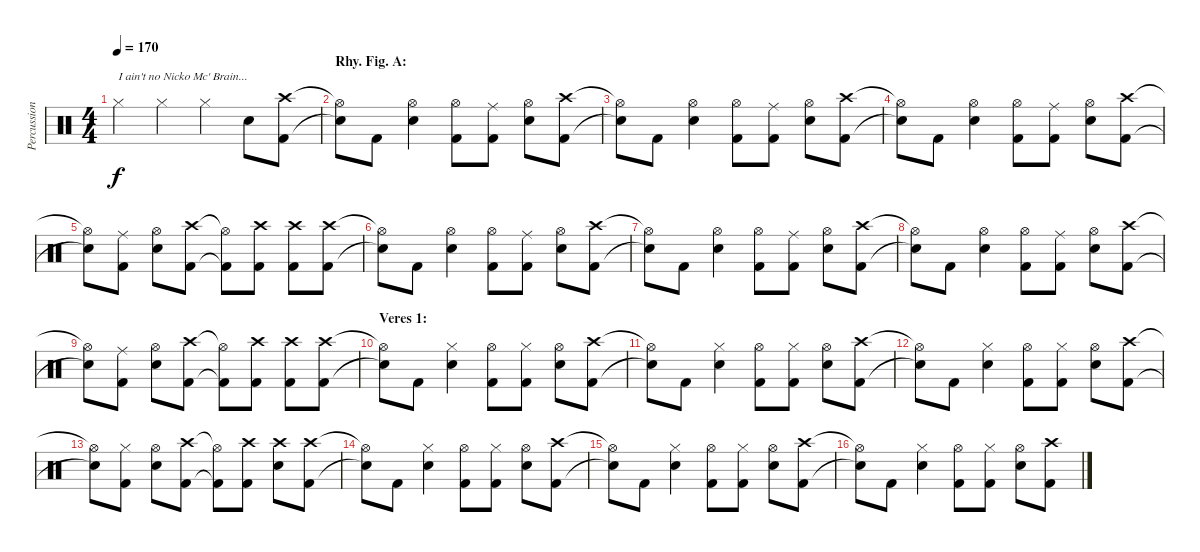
\track ("Percussion" "Percussion") {instrument percussion}
\staff {score}
\articulation defaults
\ts (4 4)
\tempo 170
\clef neutral
\ks c "Hi-Hat (closed)".4{txt "I ain't no Nicko Mc' Brain..." dy f} "Hi-Hat (closed)".4 "Hi-Hat (closed)".4 "Snare (hit) 2".8
("Crash high (hit)" "Kick (hit) 2").8 |
\section ("" "Rhy. Fig. A:")
("Hi-Hat (open)"{t} "Snare (hit)"{t}).8 "Kick (hit) 2".8 ("Hi-Hat (open)" "Snare (hit) 2").4 ("Hi-Hat (open)" "Kick (hit) 2").8 ("Ride (middle)" "Kick (hit) 2").8 ("Hi-Hat (open)" "Snare (hit) 2").8 ("Crash high (hit)" "Kick (hit) 2").8 |
("Hi-Hat (open)"{t} "Snare (hit)"{t}).8 "Kick (hit) 2".8 ("Hi-Hat (open)" "Snare (hit) 2").4 ("Hi-Hat (open)" "Kick (hit) 2").8 ("Ride (middle)" "Kick (hit) 2").8 ("Hi-Hat (open)" "Snare (hit) 2").8 ("Crash high (hit)" "Kick (hit) 2").8 |
("Hi-Hat (open)"{t} "Snare (hit)"{t}).8 "Kick (hit) 2".8 ("Hi-Hat (open)" "Snare (hit) 2").4 ("Hi-Hat (open)" "Kick (hit) 2").8 ("Ride (middle)" "Kick (hit) 2").8 ("Hi-Hat (open)" "Snare (hit) 2").8 ("Crash high (hit)" "Kick (hit) 2").8 |
("Hi-Hat (open)"{t} "Snare (hit)"{t}).8 ("Ride (middle)" "Kick (hit) 2").8 ("Hi-Hat (open)" "Snare (hit) 2").8 ("Crash high (hit)" "Kick (hit) 2").8 ("Hi-Hat (open)"{t} "Kick (hit) 2"{t}).8 ("Crash high (hit)" "Kick (hit) 2").8 ("Crash high (hit)" "Kick (hit) 2").8 ("Crash high (hit)" "Kick (hit) 2").8 |
("Hi-Hat (open)"{t} "Snare (hit)"{t}).8 "Kick (hit) 2".8 ("Hi-Hat (open)" "Snare (hit) 2").4 ("Hi-Hat (open)" "Kick (hit) 2").8 ("Ride (middle)" "Kick (hit) 2").8 ("Hi-Hat (open)" "Snare (hit) 2").8 ("Crash high (hit)" "Kick (hit) 2").8 |
("Hi-Hat (open)"{t} "Snare (hit)"{t}).8 "Kick (hit) 2".8 ("Hi-Hat (open)" "Snare (hit) 2").4 ("Hi-Hat (open)" "Kick (hit) 2").8 ("Ride (middle)" "Kick (hit) 2").8 ("Hi-Hat (open)" "Snare (hit) 2").8 ("Crash high (hit)" "Kick (hit) 2").8 |
("Hi-Hat (open)"{t} "Snare (hit)"{t}).8 "Kick (hit) 2".8 ("Hi-Hat (open)" "Snare (hit) 2").4 ("Hi-Hat (open)" "Kick (hit) 2").8 ("Ride (middle)" "Kick (hit) 2").8 ("Hi-Hat (open)" "Snare (hit) 2").8 ("Crash high (hit)" "Kick (hit) 2").8 |
("Hi-Hat (open)"{t} "Snare (hit)"{t}).8 ("Ride (middle)" "Kick (hit) 2").8 ("Hi-Hat (open)" "Snare (hit) 2").8 ("Crash high (hit)" "Kick (hit) 2").8 ("Hi-Hat (open)"{t} "Kick (hit) 2"{t}).8 ("Crash high (hit)" "Kick (hit) 2").8 ("Crash high (hit)" "Kick (hit) 2").8 ("Crash high (hit)" "Kick (hit) 2").8 |
\section ("" "Veres 1:")
("Hi-Hat (open)"{t} "Snare (hit)"{t}).8 "Kick (hit) 2".8 ("Hi-Hat (closed)" "Snare (hit) 2").4 ("Hi-Hat (open)" "Kick (hit) 2").8 ("Hi-Hat (closed)" "Kick (hit) 2").8 ("Hi-Hat (open)" "Snare (hit) 2").8 ("Crash high (hit)" "Kick (hit) 2").8 |
("Hi-Hat (open)"{t} "Snare (hit)"{t}).8 "Kick (hit) 2".8 ("Hi-Hat (closed)" "Snare (hit) 2").4 ("Hi-Hat (open)" "Kick (hit) 2").8 ("Hi-Hat (closed)" "Kick (hit) 2").8 ("Hi-Hat (open)" "Snare (hit) 2").8 ("Crash high (hit)" "Kick (hit) 2").8 |
("Hi-Hat (open)"{t} "Snare (hit)"{t}).8 "Kick (hit) 2".8 ("Hi-Hat (closed)" "Snare (hit) 2").4 ("Hi-Hat (open)" "Kick (hit) 2").8 ("Hi-Hat (closed)" "Kick (hit) 2").8 ("Hi-Hat (open)" "Snare (hit) 2").8 ("Crash high (hit)" "Kick (hit) 2").8 |
("Hi-Hat (open)"{t} "Snare (hit)"{t}).8 ("Hi-Hat (closed)" "Kick (hit) 2").8 ("Hi-Hat (open)" "Snare (hit) 2").8 ("Crash high (hit)" "Kick (hit) 2").8 ("Hi-Hat (open)"{t} "Kick (hit) 2"{t}).8 ("Crash high (hit)" "Kick (hit) 2").8 ("Crash high (hit)" "Snare (hit) 2").8 ("Crash high (hit)" "Kick (hit) 2").8 |
("Hi-Hat (open)"{t} "Snare (hit)"{t}).8 "Kick (hit) 2".8 ("Hi-Hat (closed)" "Snare (hit) 2").4 ("Hi-Hat (open)" "Kick (hit) 2").8 ("Hi-Hat (closed)" "Kick (hit) 2").8 ("Hi-Hat (open)" "Snare (hit) 2").8 ("Crash high (hit)" "Kick (hit) 2").8 |
("Hi-Hat (open)"{t} "Snare (hit)"{t}).8 "Kick (hit) 2".8 ("Hi-Hat (closed)" "Snare (hit) 2").4 ("Hi-Hat (open)" "Kick (hit) 2").8 ("Hi-Hat (closed)" "Kick (hit) 2").8 ("Hi-Hat (open)" "Snare (hit) 2").8 ("Crash high (hit)" "Kick (hit) 2").8 |
("Hi-Hat (open)"{t} "Snare (hit)"{t}).8 "Kick (hit) 2".8 ("Hi-Hat (closed)" "Snare (hit) 2").4 ("Hi-Hat (open)" "Kick (hit) 2").8 ("Hi-Hat (closed)" "Kick (hit) 2").8 ("Hi-Hat (open)" "Snare (hit) 2").8 ("Crash high (hit)" "Kick (hit) 2").8
